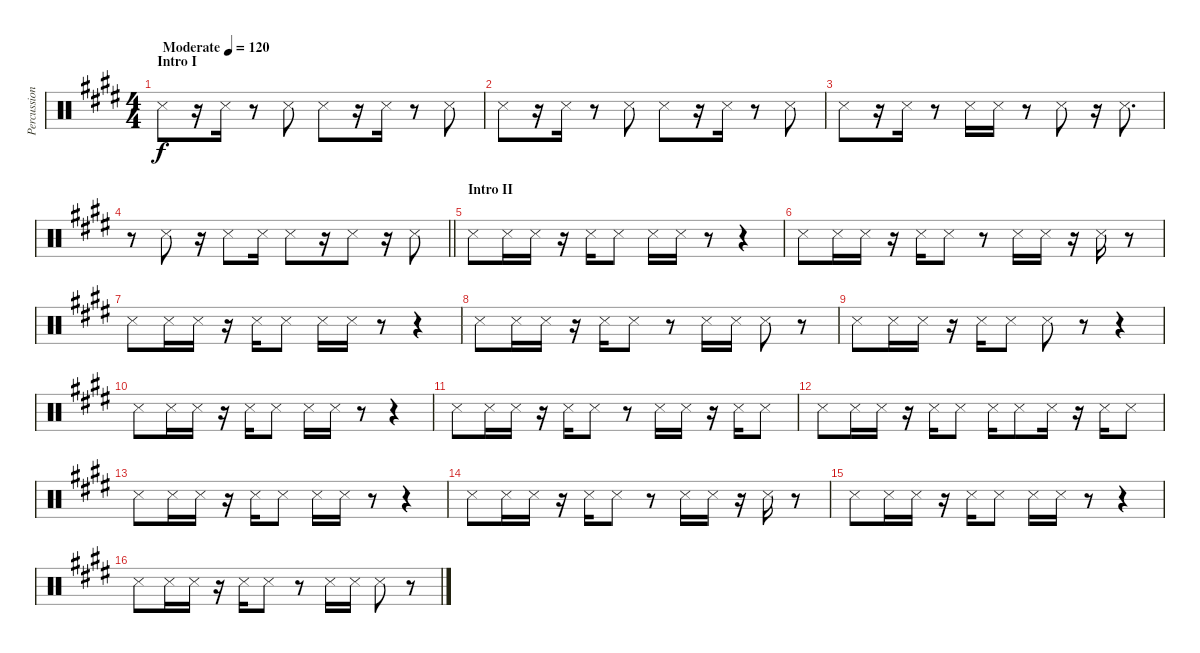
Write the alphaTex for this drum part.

\track ("Percussion I" "Percussion") {instrument percussion}
\staff {score}
\articulation defaults
\ts (4 4)
\section ("" "Intro I")
\tempo (120 "Moderate")
\clef neutral
\ks e "Snare (side stick) 3".8{dy f}
r.16 "Snare (side stick) 3".16 r.8 "Snare (side stick) 3".8 "Snare (side stick) 3".8 r.16 "Snare (side stick) 3".16 r.8 "Snare (side stick) 3".8 |
"Snare (side stick) 3".8 r.16 "Snare (side stick) 3".16 r.8 "Snare (side stick) 3".8 "Snare (side stick) 3".8 r.16 "Snare (side stick) 3".16 r.8 "Snare (side stick) 3".8 |
"Snare (side stick) 3".8 r.16 "Snare (side stick) 3".16 r.8 "Snare (side stick) 3".16 "Snare (side stick) 3".16 r.8 "Snare (side stick) 3".8 r.16 "Snare (side stick) 3".8{d} |
\barLineRight lightlight
r.8 "Snare (side stick) 3".8 r.16 "Snare (side stick) 3".8 "Snare (side stick) 3".16 "Snare (side stick) 3".8 r.16 "Snare (side stick) 3".8 r.16 "Snare (side stick) 3".8 |
\section ("" "Intro II")
"Snare (side stick) 3".8 "Snare (side stick) 3".16 "Snare (side stick) 3".16 r.16 "Snare (side stick) 3".16 "Snare (side stick) 3".8 "Snare (side stick) 3".16 "Snare (side stick) 3".16 r.8 r.4 |
"Snare (side stick) 3".8 "Snare (side stick) 3".16 "Snare (side stick) 3".16 r.16 "Snare (side stick) 3".16 "Snare (side stick) 3".8 r.8 "Snare (side stick) 3".16 "Snare (side stick) 3".16 r.16 "Snare (side stick) 3".16 r.8 |
"Snare (side stick) 3".8 "Snare (side stick) 3".16 "Snare (side stick) 3".16 r.16 "Snare (side stick) 3".16 "Snare (side stick) 3".8 "Snare (side stick) 3".16 "Snare (side stick) 3".16 r.8 r.4 |
"Snare (side stick) 3".8 "Snare (side stick) 3".16 "Snare (side stick) 3".16 r.16 "Snare (side stick) 3".16 "Snare (side stick) 3".8 r.8 "Snare (side stick) 3".16 "Snare (side stick) 3".16 "Snare (side stick) 3".8 r.8 |
"Snare (side stick) 3".8 "Snare (side stick) 3".16 "Snare (side stick) 3".16 r.16 "Snare (side stick) 3".16 "Snare (side stick) 3".8 "Snare (side stick) 3".8 r.8 r.4 |
"Snare (side stick) 3".8 "Snare (side stick) 3".16 "Snare (side stick) 3".16 r.16 "Snare (side stick) 3".16 "Snare (side stick) 3".8 "Snare (side stick) 3".16 "Snare (side stick) 3".16 r.8 r.4 |
"Snare (side stick) 3".8 "Snare (side stick) 3".16 "Snare (side stick) 3".16 r.16 "Snare (side stick) 3".16 "Snare (side stick) 3".8 r.8 "Snare (side stick) 3".16 "Snare (side stick) 3".16 r.16 "Snare (side stick) 3".16 "Snare (side stick) 3".8 |
"Snare (side stick) 3".8 "Snare (side stick) 3".16 "Snare (side stick) 3".16 r.16 "Snare (side stick) 3".16 "Snare (side stick) 3".8 "Snare (side stick) 3".16 "Snare (side stick) 3".8 "Snare (side stick) 3".16 r.16 "Snare (side stick) 3".16 "Snare (side stick) 3".8 |
"Snare (side stick) 3".8 "Snare (side stick) 3".16 "Snare (side stick) 3".16 r.16 "Snare (side stick) 3".16 "Snare (side stick) 3".8 "Snare (side stick) 3".16 "Snare (side stick) 3".16 r.8 r.4 |
"Snare (side stick) 3".8 "Snare (side stick) 3".16 "Snare (side stick) 3".16 r.16 "Snare (side stick) 3".16 "Snare (side stick) 3".8 r.8 "Snare (side stick) 3".16 "Snare (side stick) 3".16 r.16 "Snare (side stick) 3".16 r.8 |
"Snare (side stick) 3".8 "Snare (side stick) 3".16 "Snare (side stick) 3".16 r.16 "Snare (side stick) 3".16 "Snare (side stick) 3".8 "Snare (side stick) 3".16 "Snare (side stick) 3".16 r.8 r.4 |
"Snare (side stick) 3".8 "Snare (side stick) 3".16 "Snare (side stick) 3".16 r.16 "Snare (side stick) 3".16 "Snare (side stick) 3".8 r.8 "Snare (side stick) 3".16 "Snare (side stick) 3".16 "Snare (side stick) 3".8 r.8
